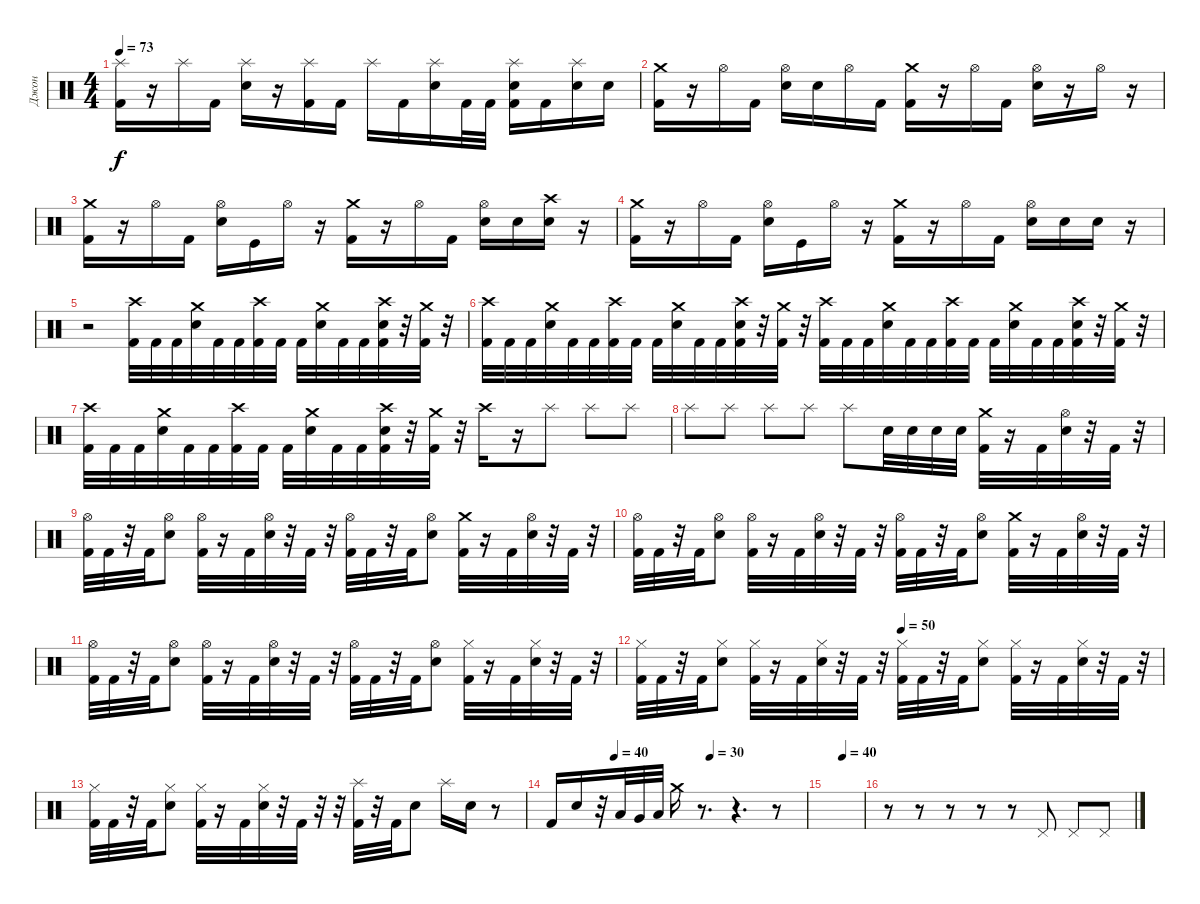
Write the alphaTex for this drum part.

\track ("Джон" "Джон") {instrument percussion}
\staff {score}
\articulation defaults
\ts (4 4)
\tempo 73
\clef neutral
\ks c
("Splash (hit)" "Kick (hit) 2").16{dy f} r.16 "Splash (hit)".16 "Kick (hit) 2".16 ("Splash (hit)" "Electric Snare (hit)").16 r.16 ("Splash (hit)" "Kick (hit) 2").16 "Kick (hit) 2".16 "Splash (hit)".16 "Kick (hit) 2".16 ("Splash (hit)" "Electric Snare (hit)").16 "Kick (hit) 2".32 "Kick (hit) 2".32 ("Splash (hit)" "Electric Snare (hit)" "Kick (hit) 2").16 "Kick (hit) 2".16 ("Splash (hit)" "Electric Snare (hit)").16 "Electric Snare (hit)".16 |
("Crash medium (hit)" "Kick (hit) 2").16 r.16 "Hi-Hat (open)".16 "Kick (hit) 2".16 ("Hi-Hat (open)" "Electric Snare (hit)").16 "Electric Snare (hit)".16 "Hi-Hat (open)".16 "Kick (hit) 2".16 ("Crash medium (hit)" "Kick (hit) 2").16 r.16 "Hi-Hat (open)".16 "Kick (hit) 2".16 ("Hi-Hat (open)" "Electric Snare (hit)").16 r.16 "Hi-Hat (open)".16 r.16 |
("Crash medium (hit)" "Kick (hit) 2").16 r.16 "Hi-Hat (open)".16 "Kick (hit) 2".16 ("Hi-Hat (open)" "Electric Snare (hit)").16 "Kick (hit)".16 "Hi-Hat (open)".16 r.16 ("Crash medium (hit)" "Kick (hit) 2").16 r.16 "Hi-Hat (open)".16 "Kick (hit) 2".16 ("Hi-Hat (open)" "Electric Snare (hit)").16 "Electric Snare (hit)".16 ("Crash high (hit)" "Electric Snare (hit)").16 r.16 |
("Crash medium (hit)" "Kick (hit) 2").16 r.16 "Hi-Hat (open)".16 "Kick (hit) 2".16 ("Hi-Hat (open)" "Electric Snare (hit)").16 "Kick (hit)".16 "Hi-Hat (open)".16 r.16 ("Crash medium (hit)" "Kick (hit) 2").16 r.16 "Hi-Hat (open)".16 "Kick (hit) 2".16 ("Hi-Hat (open)" "Electric Snare (hit)").16 "Electric Snare (hit)".16 "Electric Snare (hit)".16 r.16 |
r.2 ("Crash high (hit)" "Kick (hit) 2").32 "Kick (hit) 2".32 "Kick (hit) 2".32 ("Crash medium (hit)" "Electric Snare (hit)").32 "Kick (hit) 2".32 "Kick (hit) 2".32 ("Crash high (hit)" "Kick (hit) 2").32 "Kick (hit) 2".32 "Kick (hit) 2".32 ("Crash medium (hit)" "Electric Snare (hit)").32 "Kick (hit) 2".32 "Kick (hit) 2".32 ("Crash high (hit)" "Electric Snare (hit)" "Kick (hit) 2").32 r.32 ("Crash medium (hit)" "Kick (hit) 2").32 r.32 |
("Crash high (hit)" "Kick (hit) 2").32 "Kick (hit) 2".32 "Kick (hit) 2".32 ("Crash medium (hit)" "Electric Snare (hit)").32 "Kick (hit) 2".32 "Kick (hit) 2".32 ("Crash high (hit)" "Kick (hit) 2").32 "Kick (hit) 2".32 "Kick (hit) 2".32 ("Crash medium (hit)" "Electric Snare (hit)").32 "Kick (hit) 2".32 "Kick (hit) 2".32 ("Crash high (hit)" "Electric Snare (hit)" "Kick (hit) 2").32 r.32 ("Crash medium (hit)" "Kick (hit) 2").32 r.32 ("Crash high (hit)" "Kick (hit) 2").32 "Kick (hit) 2".32 "Kick (hit) 2".32 ("Crash medium (hit)" "Electric Snare (hit)").32 "Kick (hit) 2".32 "Kick (hit) 2".32 ("Crash high (hit)" "Kick (hit) 2").32 "Kick (hit) 2".32 "Kick (hit) 2".32 ("Crash medium (hit)" "Electric Snare (hit)").32 "Kick (hit) 2".32 "Kick (hit) 2".32 ("Crash high (hit)" "Electric Snare (hit)" "Kick (hit) 2").32 r.32 ("Crash medium (hit)" "Kick (hit) 2").32 r.32 |
("Crash high (hit)" "Kick (hit) 2").32 "Kick (hit) 2".32 "Kick (hit) 2".32 ("Crash medium (hit)" "Electric Snare (hit)").32 "Kick (hit) 2".32 "Kick (hit) 2".32 ("Crash high (hit)" "Kick (hit) 2").32 "Kick (hit) 2".32 "Kick (hit) 2".32 ("Crash medium (hit)" "Electric Snare (hit)").32 "Kick (hit) 2".32 "Kick (hit) 2".32 ("Crash high (hit)" "Electric Snare (hit)" "Kick (hit) 2").32 r.32 ("Crash medium (hit)" "Kick (hit) 2").32 r.32 "Crash high (hit)".16 r.16 "Splash (hit)".8 "Splash (hit)".8 "Splash (hit)".8 |
"Splash (hit)".8 "Splash (hit)".8 "Splash (hit)".8 "Splash (hit)".8 "Splash (hit)".8 "Electric Snare (hit)".32 "Electric Snare (hit)".32 "Electric Snare (hit)".32 "Electric Snare (hit)".32 ("Crash medium (hit)" "Kick (hit) 2").32 r.16 "Kick (hit) 2".32 ("Hi-Hat (open)" "Electric Snare (hit)").32 r.32 "Kick (hit) 2".32 r.32 |
("Hi-Hat (open)" "Kick (hit) 2").32 "Kick (hit) 2".32 r.32 "Kick (hit) 2".32 ("Hi-Hat (open)" "Electric Snare (hit)").8 ("Hi-Hat (open)" "Kick (hit) 2").32 r.16 "Kick (hit) 2".32 ("Hi-Hat (open)" "Electric Snare (hit)").32 r.32 "Kick (hit) 2".32 r.32 ("Hi-Hat (open)" "Kick (hit) 2").32 "Kick (hit) 2".32 r.32 "Kick (hit) 2".32 ("Hi-Hat (open)" "Electric Snare (hit)").8 ("Crash medium (hit)" "Kick (hit) 2").32 r.16 "Kick (hit) 2".32 ("Hi-Hat (open)" "Electric Snare (hit)").32 r.32 "Kick (hit) 2".32 r.32 |
("Hi-Hat (open)" "Kick (hit) 2").32 "Kick (hit) 2".32 r.32 "Kick (hit) 2".32 ("Hi-Hat (open)" "Electric Snare (hit)").8 ("Hi-Hat (open)" "Kick (hit) 2").32 r.16 "Kick (hit) 2".32 ("Hi-Hat (open)" "Electric Snare (hit)").32 r.32 "Kick (hit) 2".32 r.32 ("Hi-Hat (open)" "Kick (hit) 2").32 "Kick (hit) 2".32 r.32 "Kick (hit) 2".32 ("Hi-Hat (open)" "Electric Snare (hit)").8 ("Crash medium (hit)" "Kick (hit) 2").32 r.16 "Kick (hit) 2".32 ("Hi-Hat (open)" "Electric Snare (hit)").32 r.32 "Kick (hit) 2".32 r.32 |
("Hi-Hat (open)" "Kick (hit) 2").32 "Kick (hit) 2".32 r.32 "Kick (hit) 2".32 ("Hi-Hat (open)" "Electric Snare (hit)").8 ("Hi-Hat (open)" "Kick (hit) 2").32 r.16 "Kick (hit) 2".32 ("Hi-Hat (open)" "Electric Snare (hit)").32 r.32 "Kick (hit) 2".32 r.32 ("Hi-Hat (open)" "Kick (hit) 2").32 "Kick (hit) 2".32 r.32 "Kick (hit) 2".32 ("Hi-Hat (open)" "Electric Snare (hit)").8 ("Hi-Hat (closed)" "Kick (hit) 2").32 r.16 "Kick (hit) 2".32 ("Hi-Hat (closed)" "Electric Snare (hit)").32 r.32 "Kick (hit) 2".32 r.32 |
\tempo (50 0.5)
("Hi-Hat (closed)" "Kick (hit) 2").32 "Kick (hit) 2".32 r.32 "Kick (hit) 2".32 ("Hi-Hat (closed)" "Electric Snare (hit)").8 ("Hi-Hat (closed)" "Kick (hit) 2").32 r.16 "Kick (hit) 2".32 ("Hi-Hat (closed)" "Electric Snare (hit)").32 r.32 "Kick (hit) 2".32 r.32 ("Hi-Hat (closed)" "Kick (hit) 2").32 "Kick (hit) 2".32 r.32 "Kick (hit) 2".32 ("Hi-Hat (closed)" "Electric Snare (hit)").8 ("Hi-Hat (closed)" "Kick (hit) 2").32 r.16 "Kick (hit) 2".32 ("Hi-Hat (closed)" "Electric Snare (hit)").32 r.32 "Kick (hit) 2".32 r.32 |
("Hi-Hat (closed)" "Kick (hit) 2").32 "Kick (hit) 2".32 r.32 "Kick (hit) 2".32 ("Hi-Hat (closed)" "Electric Snare (hit)").8 ("Hi-Hat (closed)" "Kick (hit) 2").32 r.16 "Kick (hit) 2".32 ("Hi-Hat (closed)" "Electric Snare (hit)").32 r.32 "Kick (hit) 2".32 r.32 r.32 ("Splash (hit)" "Kick (hit) 2").32 r.32 "Kick (hit) 2".32 "Electric Snare (hit)".8 "Splash (hit)".16 "Electric Snare (hit)".16 r.8 |
\tempo (40 0.25)
\tempo (30 0.625)
"Kick (hit) 2".16 "Electric Snare (hit)".16 r.32 "Low Tom (hit)".32 "Very Low Tom (hit)".32 "Low Floor Tom (hit)".32 "Crash medium (hit)".16 r.8{d} r.4{d} r.8 |
\tempo (40 0.4375)
|
r.8 r.8 r.8 r.8 r.8 "Pedal Hi-Hat (hit)".8 "Pedal Hi-Hat (hit)".8 "Pedal Hi-Hat (hit)".8
